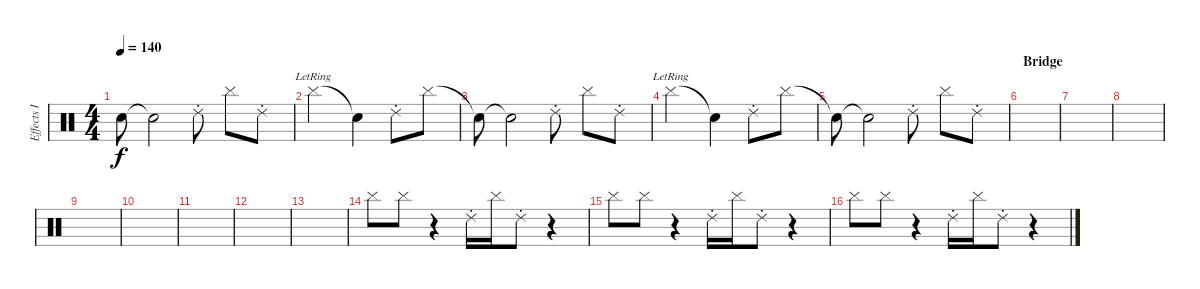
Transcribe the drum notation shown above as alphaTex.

\track ("Effects I" "Effects I") {instrument percussion}
\staff {score}
\articulation defaults
\ts (4 4)
\tempo 140
\clef neutral
\ks c "Snare (hit)"{t}.8{dy f} "Snare (hit)"{t}.2 "Ride (choke) 2".8 "Cymbal (hit)".8 "Ride (choke) 2".8
|
"Cymbal (hit)"{lr}.2 "Snare (hit)"{t}.4 "Ride (choke) 2".8 "Cymbal (hit)".8 |
"Snare (hit)"{t}.8 "Snare (hit)"{t}.2 "Ride (choke) 2".8 "Cymbal (hit)".8 "Ride (choke) 2".8 |
"Cymbal (hit)"{lr}.2 "Snare (hit)"{t}.4 "Ride (choke) 2".8 "Cymbal (hit)".8 |
"Snare (hit)"{t}.8 "Snare (hit)"{t}.2 "Ride (choke) 2".8 "Cymbal (hit)".8 "Ride (choke) 2".8 |
\section ("" "Bridge")
|
|
|
|
|
|
|
|
"Cymbal (hit)".8 "Cymbal (hit)".8 r.4 "Ride (choke) 2".16 "Cymbal (hit)".16 "Ride (choke) 2".8 r.4 |
"Cymbal (hit)".8 "Cymbal (hit)".8 r.4 "Ride (choke) 2".16 "Cymbal (hit)".16 "Ride (choke) 2".8 r.4 |
"Cymbal (hit)".8 "Cymbal (hit)".8 r.4 "Ride (choke) 2".16 "Cymbal (hit)".16 "Ride (choke) 2".8 r.4
